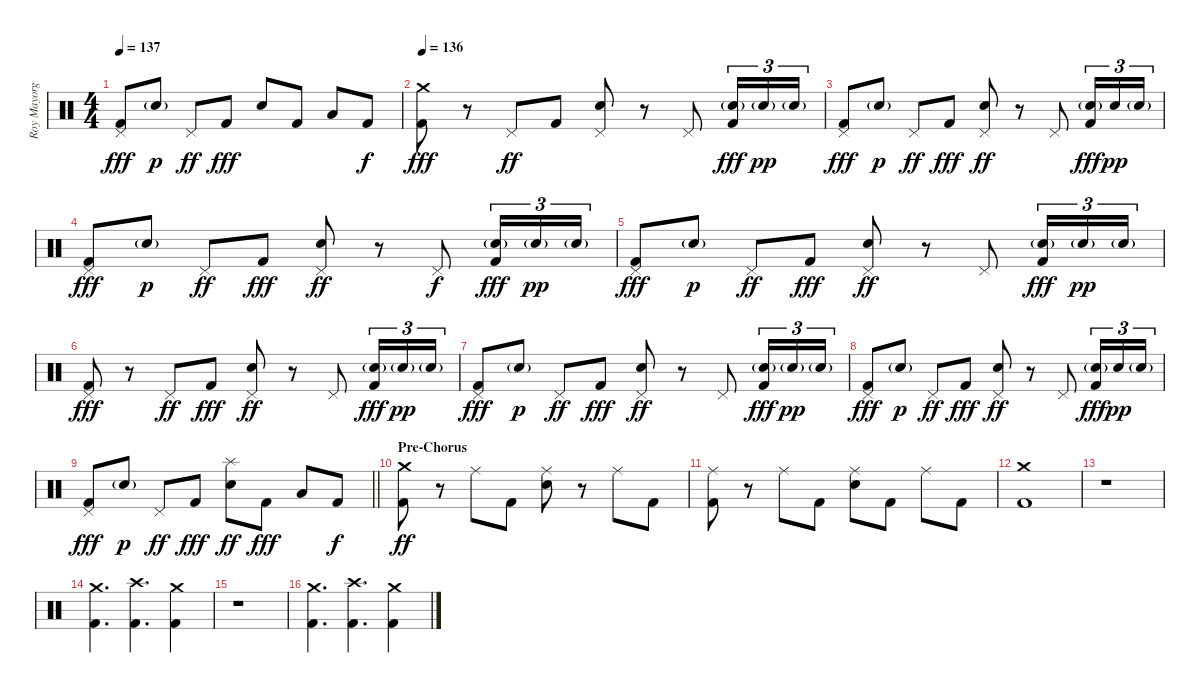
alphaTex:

\track ("Roy Mayorga (Drums)" "Roy Mayorg") {instrument percussion}
\staff {score}
\articulation defaults
\ts (4 4)
\tempo 137
\clef neutral
\ks c
("Pedal Hi-Hat (hit)" "Kick (hit) 2").8{dy fff} "Electric Snare (hit)"{g}.8{dy p} "Pedal Hi-Hat (hit)".8{dy ff} "Kick (hit) 2".8{dy fff} "Electric Snare (hit)".8 "Kick (hit) 2".8 "Low Tom (hit)".8 "Kick (hit) 2".8{dy f} |
\tempo 136
("Crash medium (hit)" "Kick (hit) 2").8{dy fff} r.8 "Pedal Hi-Hat (hit)".8{dy ff} "Kick (hit) 2".8 ("Pedal Hi-Hat (hit)" "Electric Snare (hit)").8 r.8 "Pedal Hi-Hat (hit)".8 ("Electric Snare (hit)"{g} "Kick (hit) 2").16{tu (3 2) dy fff} "Electric Snare (hit)"{g}.16{tu (3 2) dy pp} "Electric Snare (hit)"{g}.16{tu (3 2)} |
("Pedal Hi-Hat (hit)" "Kick (hit) 2").8{dy fff} "Electric Snare (hit)"{g}.8{dy p} "Pedal Hi-Hat (hit)".8{dy ff} "Kick (hit) 2".8{dy fff} ("Pedal Hi-Hat (hit)" "Electric Snare (hit)").8{dy ff} r.8 "Pedal Hi-Hat (hit)".8 ("Electric Snare (hit)"{g} "Kick (hit) 2").16{tu (3 2) dy fff} "Electric Snare (hit)".16{tu (3 2) dy pp} "Electric Snare (hit)"{g}.16{tu (3 2)} |
("Pedal Hi-Hat (hit)" "Kick (hit) 2").8{dy fff} "Electric Snare (hit)"{g}.8{dy p} "Pedal Hi-Hat (hit)".8{dy ff} "Kick (hit) 2".8{dy fff} ("Pedal Hi-Hat (hit)" "Electric Snare (hit)").8{dy ff} r.8 "Pedal Hi-Hat (hit)".8{dy f} ("Electric Snare (hit)"{g} "Kick (hit) 2").16{tu (3 2) dy fff} "Electric Snare (hit)"{g}.16{tu (3 2) dy pp} "Electric Snare (hit)"{g}.16{tu (3 2)} |
("Pedal Hi-Hat (hit)" "Kick (hit) 2").8{dy fff} "Electric Snare (hit)"{g}.8{dy p} "Pedal Hi-Hat (hit)".8{dy ff} "Kick (hit) 2".8{dy fff} ("Pedal Hi-Hat (hit)" "Electric Snare (hit)").8{dy ff} r.8 "Pedal Hi-Hat (hit)".8 ("Electric Snare (hit)"{g} "Kick (hit) 2").16{tu (3 2) dy fff} "Electric Snare (hit)"{g}.16{tu (3 2) dy pp} "Electric Snare (hit)"{g}.16{tu (3 2)} |
("Pedal Hi-Hat (hit)" "Kick (hit) 2").8{dy fff} r.8 "Pedal Hi-Hat (hit)".8{dy ff} "Kick (hit) 2".8{dy fff} ("Pedal Hi-Hat (hit)" "Electric Snare (hit)").8{dy ff} r.8 "Pedal Hi-Hat (hit)".8 ("Electric Snare (hit)"{g} "Kick (hit) 2").16{tu (3 2) dy fff} "Electric Snare (hit)"{g}.16{tu (3 2) dy pp} "Electric Snare (hit)"{g}.16{tu (3 2)} |
("Pedal Hi-Hat (hit)" "Kick (hit) 2").8{dy fff} "Electric Snare (hit)"{g}.8{dy p} "Pedal Hi-Hat (hit)".8{dy ff} "Kick (hit) 2".8{dy fff} ("Pedal Hi-Hat (hit)" "Electric Snare (hit)").8{dy ff} r.8 "Pedal Hi-Hat (hit)".8 ("Electric Snare (hit)"{g} "Kick (hit) 2").16{tu (3 2) dy fff} "Electric Snare (hit)"{g}.16{tu (3 2) dy pp} "Electric Snare (hit)"{g}.16{tu (3 2)} |
("Pedal Hi-Hat (hit)" "Kick (hit) 2").8{dy fff} "Electric Snare (hit)"{g}.8{dy p} "Pedal Hi-Hat (hit)".8{dy ff} "Kick (hit) 2".8{dy fff} ("Pedal Hi-Hat (hit)" "Electric Snare (hit)").8{dy ff} r.8 "Pedal Hi-Hat (hit)".8 ("Electric Snare (hit)"{g} "Kick (hit) 2").16{tu (3 2) dy fff} "Electric Snare (hit)".16{tu (3 2) dy pp} "Electric Snare (hit)"{g}.16{tu (3 2)} |
\barLineRight lightlight
("Pedal Hi-Hat (hit)" "Kick (hit) 2").8{dy fff} "Electric Snare (hit)"{g}.8{dy p} "Pedal Hi-Hat (hit)".8{dy ff} "Kick (hit) 2".8{dy fff} ("Splash (hit)" "Electric Snare (hit)").8{dy ff} "Kick (hit) 2".8{dy fff} "Low Tom (hit)".8 "Kick (hit) 2".8{dy f} |
\section ("" "Pre-Chorus")
("Crash medium (hit)" "Kick (hit) 2").8{dy ff} r.8 "Ride (middle)".8 "Kick (hit) 2".8 ("Ride (middle)" "Electric Snare (hit)").8 r.8 "Ride (middle)".8 "Kick (hit) 2".8 |
("Ride (middle)" "Kick (hit) 2").8 r.8 "Ride (middle)".8 "Kick (hit) 2".8 ("Ride (middle)" "Electric Snare (hit)").8 "Kick (hit) 2".8 "Ride (middle)".8 "Kick (hit) 2".8 |
("Crash medium (hit)" "Kick (hit) 2").1 |
r.1 |
("Crash medium (hit)" "Kick (hit) 2").4{d} ("Crash high (hit)" "Kick (hit) 2").4{d} ("Crash medium (hit)" "Kick (hit) 2").4 |
r.1 |
("Crash medium (hit)" "Kick (hit) 2").4{d} ("Crash high (hit)" "Kick (hit) 2").4{d} ("Crash medium (hit)" "Kick (hit) 2").4
